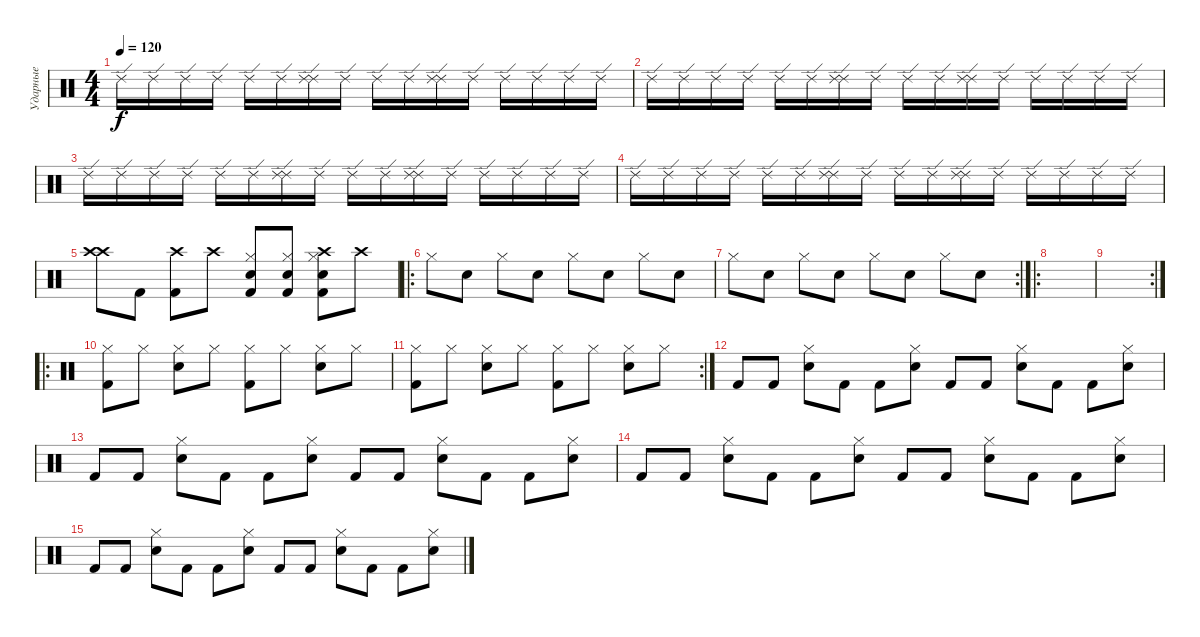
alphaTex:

\track ("Ударные" "Ударные") {instrument percussion}
\staff {score}
\articulation defaults
\ts (4 4)
\tempo 120
\clef neutral
\ks c "Ride (edge) 2".16{dy f} "Ride (edge) 2".16 "Ride (edge) 2".16 "Ride (edge) 2".16 "Ride (edge) 2".16 "Ride (edge) 2".16
("Ride (edge) 2" "Ride (edge) 2").16 "Ride (edge) 2".16 "Ride (edge) 2".16 "Ride (edge) 2".16 ("Ride (edge) 2" "Ride (edge) 2").16 "Ride (edge) 2".16 "Ride (edge) 2".16 "Ride (edge) 2".16 "Ride (edge) 2".16 "Ride (edge) 2".16 |
"Ride (edge) 2".16 "Ride (edge) 2".16 "Ride (edge) 2".16 "Ride (edge) 2".16 "Ride (edge) 2".16 "Ride (edge) 2".16 ("Ride (edge) 2" "Ride (edge) 2").16 "Ride (edge) 2".16 "Ride (edge) 2".16 "Ride (edge) 2".16 ("Ride (edge) 2" "Ride (edge) 2").16 "Ride (edge) 2".16 "Ride (edge) 2".16 "Ride (edge) 2".16 "Ride (edge) 2".16 "Ride (edge) 2".16 |
"Ride (edge) 2".16 "Ride (edge) 2".16 "Ride (edge) 2".16 "Ride (edge) 2".16 "Ride (edge) 2".16 "Ride (edge) 2".16 ("Ride (edge) 2" "Ride (edge) 2").16 "Ride (edge) 2".16 "Ride (edge) 2".16 "Ride (edge) 2".16 ("Ride (edge) 2" "Ride (edge) 2").16 "Ride (edge) 2".16 "Ride (edge) 2".16 "Ride (edge) 2".16 "Ride (edge) 2".16 "Ride (edge) 2".16 |
"Ride (edge) 2".16 "Ride (edge) 2".16 "Ride (edge) 2".16 "Ride (edge) 2".16 "Ride (edge) 2".16 "Ride (edge) 2".16 ("Ride (edge) 2" "Ride (edge) 2").16 "Ride (edge) 2".16 "Ride (edge) 2".16 "Ride (edge) 2".16 ("Ride (edge) 2" "Ride (edge) 2").16 "Ride (edge) 2".16 "Ride (edge) 2".16 "Ride (edge) 2".16 "Ride (edge) 2".16 "Ride (edge) 2".16 |
("Crash high (hit)" "Crash high (hit)").8 "Kick (hit) 2".8 ("Kick (hit) 2" "Crash high (hit)").8 "Crash high (hit)".8 ("Hi-Hat (closed)" "Snare (hit) 2" "Kick (hit) 2").8 ("Hi-Hat (closed)" "Kick (hit) 2" "Snare (hit) 2").8 ("Crash high (hit)" "Kick (hit) 2" "Snare (hit) 2" "Hi-Hat (closed)").8 "Crash high (hit)".8 |
\ro "Hi-Hat (closed)".8 "Snare (hit) 2".8 "Hi-Hat (closed)".8 "Snare (hit) 2".8 "Hi-Hat (closed)".8 "Snare (hit) 2".8 "Hi-Hat (closed)".8 "Snare (hit) 2".8
|
\rc 2 "Hi-Hat (closed)".8 "Snare (hit) 2".8 "Hi-Hat (closed)".8 "Snare (hit) 2".8 "Hi-Hat (closed)".8 "Snare (hit) 2".8 "Hi-Hat (closed)".8 "Snare (hit) 2".8
|
\ro
|
\rc 2
|
\ro
("Hi-Hat (closed)" "Kick (hit) 2").8 "Hi-Hat (closed)".8 ("Hi-Hat (closed)" "Electric Snare (hit)").8 "Hi-Hat (closed)".8 ("Hi-Hat (closed)" "Kick (hit) 2").8 "Hi-Hat (closed)".8 ("Hi-Hat (closed)" "Electric Snare (hit)").8 "Hi-Hat (closed)".8 |
\rc 2
("Hi-Hat (closed)" "Kick (hit) 2").8 "Hi-Hat (closed)".8 ("Hi-Hat (closed)" "Electric Snare (hit)").8 "Hi-Hat (closed)".8 ("Hi-Hat (closed)" "Kick (hit) 2").8 "Hi-Hat (closed)".8 ("Hi-Hat (closed)" "Electric Snare (hit)").8 "Hi-Hat (closed)".8 |
"Kick (hit) 2".8 "Kick (hit) 2".8 ("Snare (hit) 2" "Hi-Hat (closed)").8 "Kick (hit) 2".8 "Kick (hit) 2".8 ("Hi-Hat (closed)" "Snare (hit) 2").8 "Kick (hit) 2".8 "Kick (hit) 2".8 ("Snare (hit) 2" "Hi-Hat (closed)").8 "Kick (hit) 2".8 "Kick (hit) 2".8 ("Hi-Hat (closed)" "Snare (hit) 2").8 |
"Kick (hit) 2".8 "Kick (hit) 2".8 ("Snare (hit) 2" "Hi-Hat (closed)").8 "Kick (hit) 2".8 "Kick (hit) 2".8 ("Hi-Hat (closed)" "Snare (hit) 2").8 "Kick (hit) 2".8 "Kick (hit) 2".8 ("Snare (hit) 2" "Hi-Hat (closed)").8 "Kick (hit) 2".8 "Kick (hit) 2".8 ("Hi-Hat (closed)" "Snare (hit) 2").8 |
"Kick (hit) 2".8 "Kick (hit) 2".8 ("Snare (hit) 2" "Hi-Hat (closed)").8 "Kick (hit) 2".8 "Kick (hit) 2".8 ("Hi-Hat (closed)" "Snare (hit) 2").8 "Kick (hit) 2".8 "Kick (hit) 2".8 ("Snare (hit) 2" "Hi-Hat (closed)").8 "Kick (hit) 2".8 "Kick (hit) 2".8 ("Hi-Hat (closed)" "Snare (hit) 2").8 |
"Kick (hit) 2".8 "Kick (hit) 2".8 ("Snare (hit) 2" "Hi-Hat (closed)").8 "Kick (hit) 2".8 "Kick (hit) 2".8 ("Hi-Hat (closed)" "Snare (hit) 2").8 "Kick (hit) 2".8 "Kick (hit) 2".8 ("Snare (hit) 2" "Hi-Hat (closed)").8 "Kick (hit) 2".8 "Kick (hit) 2".8 ("Hi-Hat (closed)" "Snare (hit) 2").8
